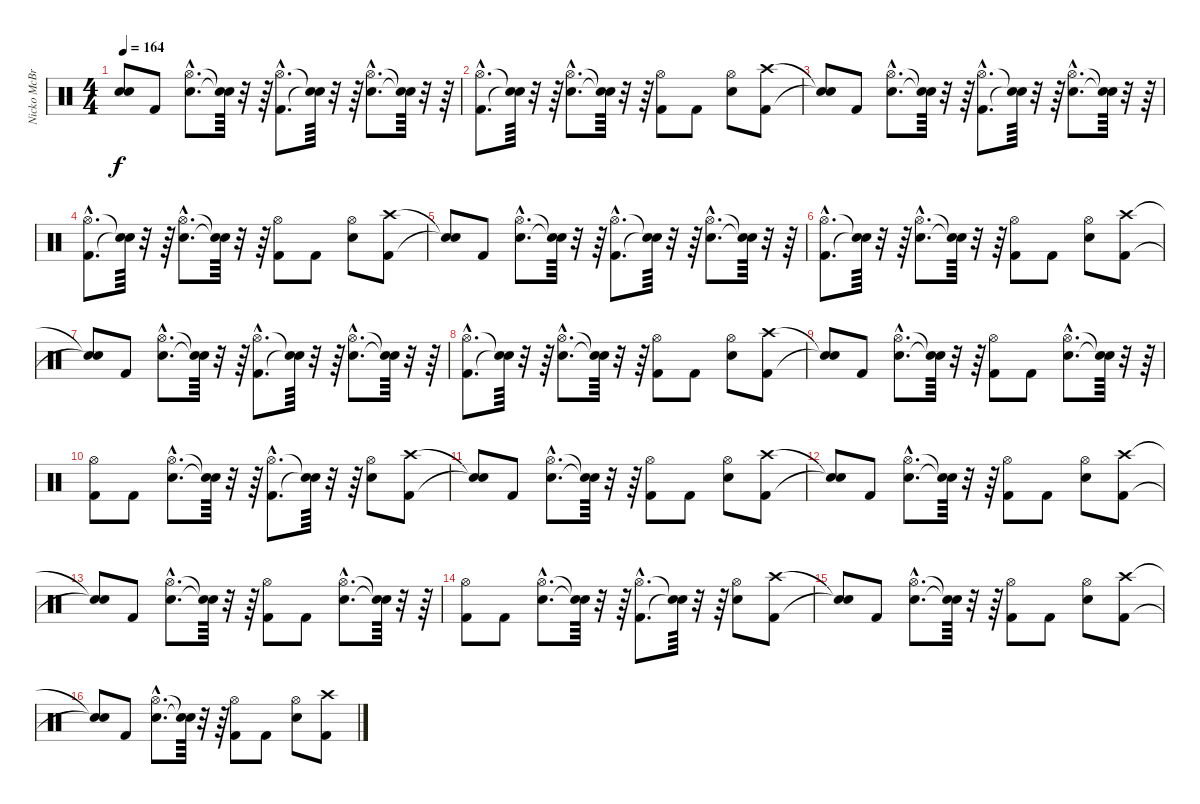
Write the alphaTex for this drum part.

\track ("Nicko McBrian (Drums)" "Nicko McBr") {instrument percussion}
\staff {score}
\articulation defaults
\ts (4 4)
\tempo 164
\clef neutral
\ks c
("Snare (hit)"{t} "Snare (hit)"{t}).8{dy f} "Kick (hit) 2".8 ("Snare (hit) 2"{hac} "Hi-Hat (open)"{hac}).8{d} ("Snare (hit)"{t} "Snare (hit)"{t}).64 r.32 r.64 ("Kick (hit) 2"{hac} "Hi-Hat (open)"{hac}).8{d} ("Snare (hit)"{t} "Snare (hit)"{t}).64 r.32 r.64 ("Snare (hit) 2"{hac} "Hi-Hat (open)"{hac}).8{d} ("Snare (hit)"{t} "Snare (hit)"{t}).64 r.32 r.64 |
("Kick (hit) 2"{hac} "Hi-Hat (open)"{hac}).8{d} ("Snare (hit)"{t} "Snare (hit)"{t}).64 r.32 r.64 ("Snare (hit) 2"{hac} "Hi-Hat (open)"{hac}).8{d} ("Snare (hit)"{t} "Snare (hit)"{t}).64 r.32 r.64 ("Kick (hit) 2" "Hi-Hat (open)").8 "Kick (hit) 2".8 ("Snare (hit) 2" "Hi-Hat (open)").8 ("Kick (hit) 2" "Crash high (hit)").8 |
("Snare (hit)"{t} "Snare (hit)"{t}).8 "Kick (hit) 2".8 ("Snare (hit) 2"{hac} "Hi-Hat (open)"{hac}).8{d} ("Snare (hit)"{t} "Snare (hit)"{t}).64 r.32 r.64 ("Kick (hit) 2"{hac} "Hi-Hat (open)"{hac}).8{d} ("Snare (hit)"{t} "Snare (hit)"{t}).64 r.32 r.64 ("Snare (hit) 2"{hac} "Hi-Hat (open)"{hac}).8{d} ("Snare (hit)"{t} "Snare (hit)"{t}).64 r.32 r.64 |
("Kick (hit) 2"{hac} "Hi-Hat (open)"{hac}).8{d} ("Snare (hit)"{t} "Snare (hit)"{t}).64 r.32 r.64 ("Snare (hit) 2"{hac} "Hi-Hat (open)"{hac}).8{d} ("Snare (hit)"{t} "Snare (hit)"{t}).64 r.32 r.64 ("Kick (hit) 2" "Hi-Hat (open)").8 "Kick (hit) 2".8 ("Snare (hit) 2" "Hi-Hat (open)").8 ("Kick (hit) 2" "Crash high (hit)").8 |
("Snare (hit)"{t} "Snare (hit)"{t}).8 "Kick (hit) 2".8 ("Snare (hit) 2"{hac} "Hi-Hat (open)"{hac}).8{d} ("Snare (hit)"{t} "Snare (hit)"{t}).64 r.32 r.64 ("Kick (hit) 2"{hac} "Hi-Hat (open)"{hac}).8{d} ("Snare (hit)"{t} "Snare (hit)"{t}).64 r.32 r.64 ("Snare (hit) 2"{hac} "Hi-Hat (open)"{hac}).8{d} ("Snare (hit)"{t} "Snare (hit)"{t}).64 r.32 r.64 |
("Kick (hit) 2"{hac} "Hi-Hat (open)"{hac}).8{d} ("Snare (hit)"{t} "Snare (hit)"{t}).64 r.32 r.64 ("Snare (hit) 2"{hac} "Hi-Hat (open)"{hac}).8{d} ("Snare (hit)"{t} "Snare (hit)"{t}).64 r.32 r.64 ("Kick (hit) 2" "Hi-Hat (open)").8 "Kick (hit) 2".8 ("Snare (hit) 2" "Hi-Hat (open)").8 ("Kick (hit) 2" "Crash high (hit)").8 |
("Snare (hit)"{t} "Snare (hit)"{t}).8 "Kick (hit) 2".8 ("Snare (hit) 2"{hac} "Hi-Hat (open)"{hac}).8{d} ("Snare (hit)"{t} "Snare (hit)"{t}).64 r.32 r.64 ("Kick (hit) 2"{hac} "Hi-Hat (open)"{hac}).8{d} ("Snare (hit)"{t} "Snare (hit)"{t}).64 r.32 r.64 ("Snare (hit) 2"{hac} "Hi-Hat (open)"{hac}).8{d} ("Snare (hit)"{t} "Snare (hit)"{t}).64 r.32 r.64 |
("Kick (hit) 2"{hac} "Hi-Hat (open)"{hac}).8{d} ("Snare (hit)"{t} "Snare (hit)"{t}).64 r.32 r.64 ("Snare (hit) 2"{hac} "Hi-Hat (open)"{hac}).8{d} ("Snare (hit)"{t} "Snare (hit)"{t}).64 r.32 r.64 ("Kick (hit) 2" "Hi-Hat (open)").8 "Kick (hit) 2".8 ("Snare (hit) 2" "Hi-Hat (open)").8 ("Kick (hit) 2" "Crash high (hit)").8 |
("Snare (hit)"{t} "Snare (hit)"{t}).8 "Kick (hit) 2".8 ("Snare (hit) 2"{hac} "Hi-Hat (open)"{hac}).8{d} ("Snare (hit)"{t} "Snare (hit)"{t}).64 r.32 r.64 ("Kick (hit) 2" "Hi-Hat (open)").8 "Kick (hit) 2".8 ("Snare (hit) 2"{hac} "Hi-Hat (open)"{hac}).8{d} ("Snare (hit)"{t} "Snare (hit)"{t}).64 r.32 r.64 |
("Kick (hit) 2" "Hi-Hat (open)").8 "Kick (hit) 2".8 ("Snare (hit) 2"{hac} "Hi-Hat (open)"{hac}).8{d} ("Snare (hit)"{t} "Snare (hit)"{t}).64 r.32 r.64 ("Kick (hit) 2"{hac} "Hi-Hat (open)"{hac}).8{d} ("Snare (hit)"{t} "Snare (hit)"{t}).64 r.32 r.64 ("Snare (hit) 2" "Hi-Hat (open)").8 ("Kick (hit) 2" "Crash high (hit)").8 |
("Snare (hit)"{t} "Snare (hit)"{t}).8 "Kick (hit) 2".8 ("Snare (hit) 2"{hac} "Hi-Hat (open)"{hac}).8{d} ("Snare (hit)"{t} "Snare (hit)"{t}).64 r.32 r.64 ("Kick (hit) 2" "Hi-Hat (open)").8 "Kick (hit) 2".8 ("Snare (hit) 2" "Hi-Hat (open)").8 ("Kick (hit) 2" "Crash high (hit)").8 |
("Snare (hit)"{t} "Snare (hit)"{t}).8 "Kick (hit) 2".8 ("Snare (hit) 2"{hac} "Hi-Hat (open)"{hac}).8{d} ("Snare (hit)"{t} "Snare (hit)"{t}).64 r.32 r.64 ("Kick (hit) 2" "Hi-Hat (open)").8 "Kick (hit) 2".8 ("Snare (hit) 2" "Hi-Hat (open)").8 ("Kick (hit) 2" "Crash high (hit)").8 |
("Snare (hit)"{t} "Snare (hit)"{t}).8 "Kick (hit) 2".8 ("Snare (hit) 2"{hac} "Hi-Hat (open)"{hac}).8{d} ("Snare (hit)"{t} "Snare (hit)"{t}).64 r.32 r.64 ("Kick (hit) 2" "Hi-Hat (open)").8 "Kick (hit) 2".8 ("Snare (hit) 2"{hac} "Hi-Hat (open)"{hac}).8{d} ("Snare (hit)"{t} "Snare (hit)"{t}).64 r.32 r.64 |
("Kick (hit) 2" "Hi-Hat (open)").8 "Kick (hit) 2".8 ("Snare (hit) 2"{hac} "Hi-Hat (open)"{hac}).8{d} ("Snare (hit)"{t} "Snare (hit)"{t}).64 r.32 r.64 ("Kick (hit) 2"{hac} "Hi-Hat (open)"{hac}).8{d} ("Snare (hit)"{t} "Snare (hit)"{t}).64 r.32 r.64 ("Snare (hit) 2" "Hi-Hat (open)").8 ("Kick (hit) 2" "Crash high (hit)").8 |
("Snare (hit)"{t} "Snare (hit)"{t}).8 "Kick (hit) 2".8 ("Snare (hit) 2"{hac} "Hi-Hat (open)"{hac}).8{d} ("Snare (hit)"{t} "Snare (hit)"{t}).64 r.32 r.64 ("Kick (hit) 2" "Hi-Hat (open)").8 "Kick (hit) 2".8 ("Snare (hit) 2" "Hi-Hat (open)").8 ("Kick (hit) 2" "Crash high (hit)").8 |
("Snare (hit)"{t} "Snare (hit)"{t}).8 "Kick (hit) 2".8 ("Snare (hit) 2"{hac} "Hi-Hat (open)"{hac}).8{d} ("Snare (hit)"{t} "Snare (hit)"{t}).64 r.32 r.64 ("Kick (hit) 2" "Hi-Hat (open)").8 "Kick (hit) 2".8 ("Snare (hit) 2" "Hi-Hat (open)").8 ("Kick (hit) 2" "Crash high (hit)").8
